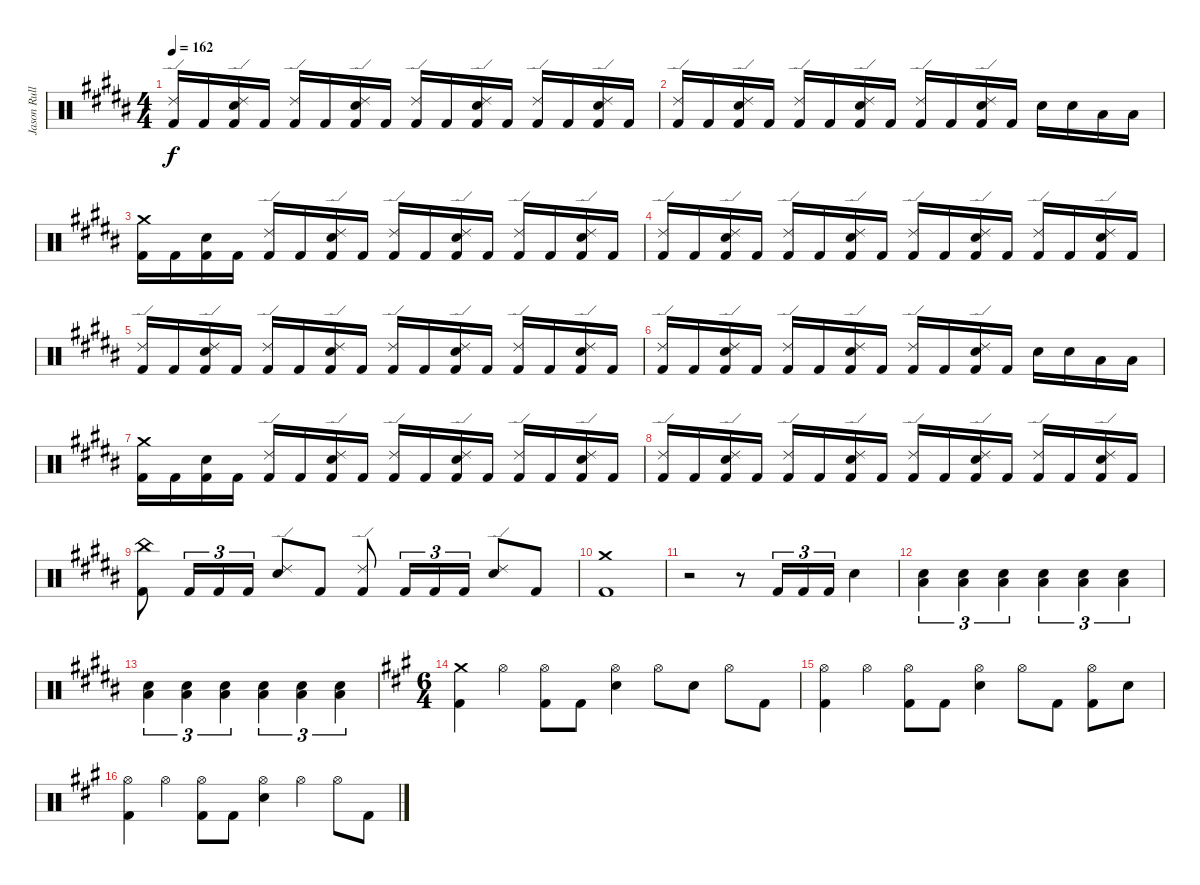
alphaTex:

\track ("Jason Rullo" "Jason Rull") {instrument percussion}
\staff {score}
\articulation defaults
\ts (4 4)
\tempo 162
\clef neutral
\ks g#minor
("Ride (edge) 2" "Kick (hit) 2").16{dy f} "Kick (hit) 2".16 ("Electric Snare (hit)" "Ride (edge) 2" "Kick (hit) 2").16 "Kick (hit) 2".16 ("Ride (edge) 2" "Kick (hit) 2").16 "Kick (hit) 2".16 ("Electric Snare (hit)" "Ride (edge) 2" "Kick (hit) 2").16 "Kick (hit) 2".16 ("Ride (edge) 2" "Kick (hit) 2").16 "Kick (hit) 2".16 ("Electric Snare (hit)" "Ride (edge) 2" "Kick (hit) 2").16 "Kick (hit) 2".16 ("Ride (edge) 2" "Kick (hit) 2").16 "Kick (hit) 2".16 ("Electric Snare (hit)" "Ride (edge) 2" "Kick (hit) 2").16 "Kick (hit) 2".16 |
("Ride (edge) 2" "Kick (hit) 2").16 "Kick (hit) 2".16 ("Electric Snare (hit)" "Ride (edge) 2" "Kick (hit) 2").16 "Kick (hit) 2".16 ("Ride (edge) 2" "Kick (hit) 2").16 "Kick (hit) 2".16 ("Electric Snare (hit)" "Ride (edge) 2" "Kick (hit) 2").16 "Kick (hit) 2".16 ("Ride (edge) 2" "Kick (hit) 2").16 "Kick (hit) 2".16 ("Electric Snare (hit)" "Ride (edge) 2" "Kick (hit) 2").16 "Kick (hit) 2".16 "Electric Snare (hit)".16 "Electric Snare (hit)".16 "Low Tom (hit)".16 "Low Tom (hit)".16 |
("Crash medium (hit)" "Kick (hit) 2").16 "Kick (hit) 2".16 ("Electric Snare (hit)" "Kick (hit) 2").16 "Kick (hit) 2".16 ("Ride (edge) 2" "Kick (hit) 2").16 "Kick (hit) 2".16 ("Electric Snare (hit)" "Ride (edge) 2" "Kick (hit) 2").16 "Kick (hit) 2".16 ("Ride (edge) 2" "Kick (hit) 2").16 "Kick (hit) 2".16 ("Electric Snare (hit)" "Ride (edge) 2" "Kick (hit) 2").16 "Kick (hit) 2".16 ("Ride (edge) 2" "Kick (hit) 2").16 "Kick (hit) 2".16 ("Electric Snare (hit)" "Ride (edge) 2" "Kick (hit) 2").16 "Kick (hit) 2".16 |
("Ride (edge) 2" "Kick (hit) 2").16 "Kick (hit) 2".16 ("Electric Snare (hit)" "Ride (edge) 2" "Kick (hit) 2").16 "Kick (hit) 2".16 ("Ride (edge) 2" "Kick (hit) 2").16 "Kick (hit) 2".16 ("Electric Snare (hit)" "Ride (edge) 2" "Kick (hit) 2").16 "Kick (hit) 2".16 ("Ride (edge) 2" "Kick (hit) 2").16 "Kick (hit) 2".16 ("Electric Snare (hit)" "Ride (edge) 2" "Kick (hit) 2").16 "Kick (hit) 2".16 ("Ride (edge) 2" "Kick (hit) 2").16 "Kick (hit) 2".16 ("Electric Snare (hit)" "Ride (edge) 2" "Kick (hit) 2").16 "Kick (hit) 2".16 |
("Ride (edge) 2" "Kick (hit) 2").16 "Kick (hit) 2".16 ("Electric Snare (hit)" "Ride (edge) 2" "Kick (hit) 2").16 "Kick (hit) 2".16 ("Ride (edge) 2" "Kick (hit) 2").16 "Kick (hit) 2".16 ("Electric Snare (hit)" "Ride (edge) 2" "Kick (hit) 2").16 "Kick (hit) 2".16 ("Ride (edge) 2" "Kick (hit) 2").16 "Kick (hit) 2".16 ("Electric Snare (hit)" "Ride (edge) 2" "Kick (hit) 2").16 "Kick (hit) 2".16 ("Ride (edge) 2" "Kick (hit) 2").16 "Kick (hit) 2".16 ("Electric Snare (hit)" "Ride (edge) 2" "Kick (hit) 2").16 "Kick (hit) 2".16 |
("Ride (edge) 2" "Kick (hit) 2").16 "Kick (hit) 2".16 ("Electric Snare (hit)" "Ride (edge) 2" "Kick (hit) 2").16 "Kick (hit) 2".16 ("Ride (edge) 2" "Kick (hit) 2").16 "Kick (hit) 2".16 ("Electric Snare (hit)" "Ride (edge) 2" "Kick (hit) 2").16 "Kick (hit) 2".16 ("Ride (edge) 2" "Kick (hit) 2").16 "Kick (hit) 2".16 ("Electric Snare (hit)" "Ride (edge) 2" "Kick (hit) 2").16 "Kick (hit) 2".16 "Electric Snare (hit)".16 "Electric Snare (hit)".16 "Low Tom (hit)".16 "Low Tom (hit)".16 |
("Crash medium (hit)" "Kick (hit) 2").16 "Kick (hit) 2".16 ("Electric Snare (hit)" "Kick (hit) 2").16 "Kick (hit) 2".16 ("Ride (edge) 2" "Kick (hit) 2").16 "Kick (hit) 2".16 ("Electric Snare (hit)" "Ride (edge) 2" "Kick (hit) 2").16 "Kick (hit) 2".16 ("Ride (edge) 2" "Kick (hit) 2").16 "Kick (hit) 2".16 ("Electric Snare (hit)" "Ride (edge) 2" "Kick (hit) 2").16 "Kick (hit) 2".16 ("Ride (edge) 2" "Kick (hit) 2").16 "Kick (hit) 2".16 ("Electric Snare (hit)" "Ride (edge) 2" "Kick (hit) 2").16 "Kick (hit) 2".16 |
("Ride (edge) 2" "Kick (hit) 2").16 "Kick (hit) 2".16 ("Electric Snare (hit)" "Ride (edge) 2" "Kick (hit) 2").16 "Kick (hit) 2".16 ("Ride (edge) 2" "Kick (hit) 2").16 "Kick (hit) 2".16 ("Electric Snare (hit)" "Ride (edge) 2" "Kick (hit) 2").16 "Kick (hit) 2".16 ("Ride (edge) 2" "Kick (hit) 2").16 "Kick (hit) 2".16 ("Electric Snare (hit)" "Ride (edge) 2" "Kick (hit) 2").16 "Kick (hit) 2".16 ("Ride (edge) 2" "Kick (hit) 2").16 "Kick (hit) 2".16 ("Electric Snare (hit)" "Ride (edge) 2" "Kick (hit) 2").16 "Kick (hit) 2".16 |
("China (hit)" "Kick (hit) 2").8 "Kick (hit) 2".16{tu (3 2)} "Kick (hit) 2".16{tu (3 2)} "Kick (hit) 2".16{tu (3 2)} ("Ride (edge) 2" "Electric Snare (hit)").8 "Kick (hit) 2".8 ("Ride (edge) 2" "Kick (hit) 2").8 "Kick (hit) 2".16{tu (3 2)} "Kick (hit) 2".16{tu (3 2)} "Kick (hit) 2".16{tu (3 2)} ("Ride (edge) 2" "Electric Snare (hit)").8 "Kick (hit) 2".8 |
("Crash medium (hit)" "Kick (hit) 2").1 |
r.2 r.8 "Kick (hit) 2".16{tu (3 2)} "Kick (hit) 2".16{tu (3 2)} "Kick (hit) 2".16{tu (3 2)} "Electric Snare (hit)".4 |
("Low Tom (hit)" "Electric Snare (hit)").4{tu (3 2) volume 11} ("Low Tom (hit)" "Electric Snare (hit)").4{tu (3 2) volume 12} ("Low Tom (hit)" "Electric Snare (hit)").4{tu (3 2) volume 12} ("Low Tom (hit)" "Electric Snare (hit)").4{tu (3 2) volume 12} ("Low Tom (hit)" "Electric Snare (hit)").4{tu (3 2) volume 13} ("Low Tom (hit)" "Electric Snare (hit)").4{tu (3 2) volume 13} |
("Low Tom (hit)" "Electric Snare (hit)").4{tu (3 2) volume 14} ("Low Tom (hit)" "Electric Snare (hit)").4{tu (3 2) volume 14} ("Low Tom (hit)" "Electric Snare (hit)").4{tu (3 2) volume 14} ("Low Tom (hit)" "Electric Snare (hit)").4{tu (3 2) volume 15} ("Low Tom (hit)" "Electric Snare (hit)").4{tu (3 2) volume 15} ("Low Tom (hit)" "Electric Snare (hit)").4{tu (3 2) volume 15} |
\ts (6 4)
\ks f#minor
("Kick (hit) 2" "Crash medium (hit)").4{volume 16} "Hi-Hat (open)".4 ("Hi-Hat (open)" "Kick (hit) 2").8 "Kick (hit) 2".8 ("Electric Snare (hit)" "Hi-Hat (open)").4 "Hi-Hat (open)".8 "Electric Snare (hit)".8 "Hi-Hat (open)".8 "Kick (hit) 2".8 |
("Hi-Hat (open)" "Kick (hit) 2").4 "Hi-Hat (open)".4 ("Hi-Hat (open)" "Kick (hit) 2").8 "Kick (hit) 2".8 ("Hi-Hat (open)" "Electric Snare (hit)").4 "Hi-Hat (open)".8 "Kick (hit) 2".8 ("Hi-Hat (open)" "Kick (hit) 2").8 "Electric Snare (hit)".8 |
("Hi-Hat (open)" "Kick (hit) 2").4 "Hi-Hat (open)".4 ("Hi-Hat (open)" "Kick (hit) 2").8 "Kick (hit) 2".8 ("Electric Snare (hit)" "Hi-Hat (open)").4 "Hi-Hat (open)".4 "Hi-Hat (open)".8 "Kick (hit) 2".8
